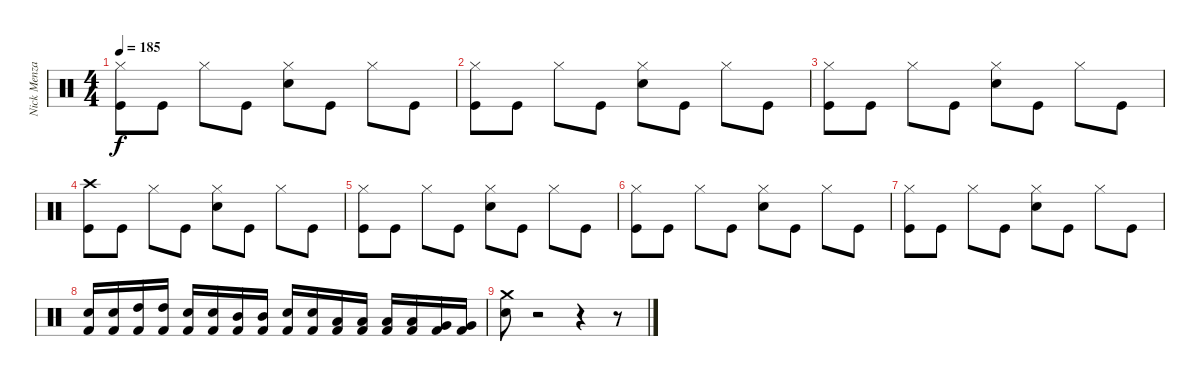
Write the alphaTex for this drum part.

\track ("Nick Menza" "Nick Menza") {instrument percussion}
\staff {score}
\articulation defaults
\ts (4 4)
\tempo 185
\clef neutral
\ks c
("Hi-Hat (closed)" "Kick (hit)").8{dy f} "Kick (hit)".8 "Hi-Hat (closed)".8 "Kick (hit)".8 ("Hi-Hat (closed)" "Snare (hit) 2").8 "Kick (hit)".8 "Hi-Hat (closed)".8 "Kick (hit)".8 |
("Hi-Hat (closed)" "Kick (hit)").8 "Kick (hit)".8 "Hi-Hat (closed)".8 "Kick (hit)".8 ("Hi-Hat (closed)" "Snare (hit) 2").8 "Kick (hit)".8 "Hi-Hat (closed)".8 "Kick (hit)".8 |
("Hi-Hat (closed)" "Kick (hit)").8 "Kick (hit)".8 "Hi-Hat (closed)".8 "Kick (hit)".8 ("Hi-Hat (closed)" "Snare (hit) 2").8 "Kick (hit)".8 "Hi-Hat (closed)".8 "Kick (hit)".8 |
("Crash high (hit)" "Kick (hit)").8 "Kick (hit)".8 "Hi-Hat (closed)".8 "Kick (hit)".8 ("Hi-Hat (closed)" "Snare (hit) 2").8 "Kick (hit)".8 "Hi-Hat (closed)".8 "Kick (hit)".8 |
("Hi-Hat (closed)" "Kick (hit)").8 "Kick (hit)".8 "Hi-Hat (closed)".8 "Kick (hit)".8 ("Hi-Hat (closed)" "Snare (hit) 2").8 "Kick (hit)".8 "Hi-Hat (closed)".8 "Kick (hit)".8 |
("Hi-Hat (closed)" "Kick (hit)").8 "Kick (hit)".8 "Hi-Hat (closed)".8 "Kick (hit)".8 ("Hi-Hat (closed)" "Snare (hit) 2").8 "Kick (hit)".8 "Hi-Hat (closed)".8 "Kick (hit)".8 |
("Hi-Hat (closed)" "Kick (hit)").8 "Kick (hit)".8 "Hi-Hat (closed)".8 "Kick (hit)".8 ("Hi-Hat (closed)" "Snare (hit) 2").8 "Kick (hit)".8 "Hi-Hat (closed)".8 "Kick (hit)".8 |
("Snare (hit) 2" "Kick (hit) 2").16 ("Snare (hit) 2" "Kick (hit) 2").16 ("High Tom (hit)" "Kick (hit) 2").16 ("High Tom (hit)" "Kick (hit) 2").16 ("Snare (hit) 2" "Kick (hit) 2").16 ("Snare (hit) 2" "Kick (hit) 2").16 ("Mid Tom (hit)" "Kick (hit) 2").16 ("Mid Tom (hit)" "Kick (hit) 2").16 ("Snare (hit) 2" "Kick (hit) 2").16 ("Snare (hit) 2" "Kick (hit) 2").16 ("Low Tom (hit)" "Kick (hit) 2").16 ("Low Tom (hit)" "Kick (hit) 2").16 ("Low Tom (hit)" "Kick (hit) 2").16 ("Low Tom (hit)" "Kick (hit) 2").16 ("Very Low Tom (hit)" "Kick (hit) 2").16 ("Very Low Tom (hit)" "Kick (hit) 2").16 |
("Crash medium (hit)" "Snare (hit) 2").8 r.2 r.4 r.8
